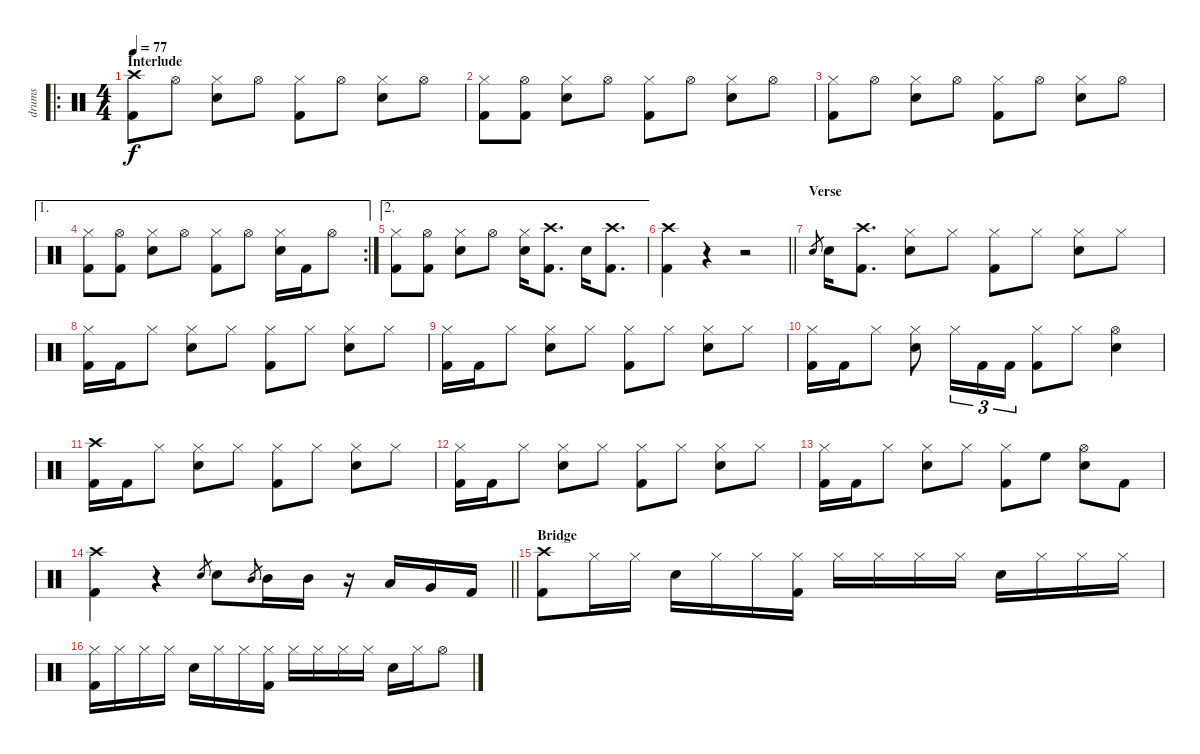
\track ("drums" "drums") {instrument percussion}
\staff {score}
\articulation defaults
\ro
\ts (4 4)
\section ("" "Interlude")
\tempo 77
\clef neutral
\ks c
("Crash high (hit)" "Kick (hit) 2").8{dy f} "Hi-Hat (open)".8 ("Hi-Hat (closed)" "Electric Snare (hit)").8 "Hi-Hat (open)".8 ("Hi-Hat (closed)" "Kick (hit) 2").8 "Hi-Hat (open)".8 ("Hi-Hat (closed)" "Electric Snare (hit)").8 "Hi-Hat (open)".8 |
("Hi-Hat (closed)" "Kick (hit) 2").8 ("Hi-Hat (open)" "Kick (hit) 2").8 ("Hi-Hat (closed)" "Electric Snare (hit)").8 "Hi-Hat (open)".8 ("Hi-Hat (closed)" "Kick (hit) 2").8 "Hi-Hat (open)".8 ("Hi-Hat (closed)" "Electric Snare (hit)").8 "Hi-Hat (open)".8 |
("Hi-Hat (closed)" "Kick (hit) 2").8 "Hi-Hat (open)".8 ("Hi-Hat (closed)" "Electric Snare (hit)").8 "Hi-Hat (open)".8 ("Hi-Hat (closed)" "Kick (hit) 2").8 "Hi-Hat (open)".8 ("Hi-Hat (closed)" "Electric Snare (hit)").8 "Hi-Hat (open)".8 |
\ae 1
\rc 2
("Hi-Hat (closed)" "Kick (hit) 2").8 ("Hi-Hat (open)" "Kick (hit) 2").8 ("Hi-Hat (closed)" "Electric Snare (hit)").8 "Hi-Hat (open)".8 ("Hi-Hat (closed)" "Kick (hit) 2").8 "Hi-Hat (open)".8 ("Hi-Hat (closed)" "Electric Snare (hit)").16 "Kick (hit) 2".16 "Hi-Hat (open)".8 |
\ae 2
("Hi-Hat (closed)" "Kick (hit) 2").8 ("Hi-Hat (open)" "Kick (hit) 2").8 ("Hi-Hat (closed)" "Electric Snare (hit)").8 "Hi-Hat (open)".8 ("Hi-Hat (closed)" "Electric Snare (hit)").16 ("Crash high (hit)" "Kick (hit) 2").8{d} "Electric Snare (hit)".16 ("Crash high (hit)" "Kick (hit) 2").8{d} |
\barLineRight lightlight
("Crash high (hit)" "Kick (hit) 2").4 r.4 r.2 |
\section ("" "Verse")
"Electric Snare (hit)".8{gr} "Electric Snare (hit)".16 ("Crash high (hit)" "Kick (hit) 2").8{d} ("Hi-Hat (closed)" "Electric Snare (hit)").8 "Hi-Hat (closed)".8 ("Hi-Hat (closed)" "Kick (hit) 2").8 "Hi-Hat (closed)".8 ("Hi-Hat (closed)" "Electric Snare (hit)").8 "Hi-Hat (closed)".8 |
("Hi-Hat (closed)" "Kick (hit) 2").16 "Kick (hit) 2".16 "Hi-Hat (closed)".8 ("Hi-Hat (closed)" "Electric Snare (hit)").8 "Hi-Hat (closed)".8 ("Hi-Hat (closed)" "Kick (hit) 2").8 "Hi-Hat (closed)".8 ("Hi-Hat (closed)" "Electric Snare (hit)").8 "Hi-Hat (closed)".8 |
("Hi-Hat (closed)" "Kick (hit) 2").16 "Kick (hit) 2".16 "Hi-Hat (closed)".8 ("Hi-Hat (closed)" "Electric Snare (hit)").8 "Hi-Hat (closed)".8 ("Hi-Hat (closed)" "Kick (hit) 2").8 "Hi-Hat (closed)".8 ("Hi-Hat (closed)" "Electric Snare (hit)").8 "Hi-Hat (closed)".8 |
("Hi-Hat (closed)" "Kick (hit) 2").16 "Kick (hit) 2".16 "Hi-Hat (closed)".8 ("Hi-Hat (closed)" "Electric Snare (hit)").8 "Hi-Hat (closed)".16{tu (3 2)} "Kick (hit) 2".16{tu (3 2)} "Kick (hit) 2".16{tu (3 2)} ("Hi-Hat (closed)" "Kick (hit) 2").8 "Hi-Hat (closed)".8 ("Hi-Hat (open)" "Electric Snare (hit)").4 |
("Crash high (hit)" "Kick (hit) 2").16 "Kick (hit) 2".16 "Hi-Hat (closed)".8 ("Hi-Hat (closed)" "Electric Snare (hit)").8 "Hi-Hat (closed)".8 ("Hi-Hat (closed)" "Kick (hit) 2").8 "Hi-Hat (closed)".8 ("Hi-Hat (closed)" "Electric Snare (hit)").8 "Hi-Hat (closed)".8 |
("Hi-Hat (closed)" "Kick (hit) 2").16 "Kick (hit) 2".16 "Hi-Hat (closed)".8 ("Hi-Hat (closed)" "Electric Snare (hit)").8 "Hi-Hat (closed)".8 ("Hi-Hat (closed)" "Kick (hit) 2").8 "Hi-Hat (closed)".8 ("Hi-Hat (closed)" "Electric Snare (hit)").8 "Hi-Hat (closed)".8 |
("Hi-Hat (closed)" "Kick (hit) 2").16 "Kick (hit) 2".16 "Hi-Hat (closed)".8 ("Hi-Hat (closed)" "Electric Snare (hit)").8 "Hi-Hat (closed)".8 ("Hi-Hat (closed)" "Kick (hit) 2").8 "High Floor Tom (hit)".8 ("Hi-Hat (open)" "Electric Snare (hit)").8 "Kick (hit) 2".8 |
\barLineRight lightlight
("Crash high (hit)" "Kick (hit) 2").4 r.4 "Electric Snare (hit)"{sl}.8{gr} "Electric Snare (hit)".8 "Mid Tom (hit)".8{gr} "Mid Tom (hit)".16 "Mid Tom (hit)".16 r.16 "Low Tom (hit)".16 "Very Low Tom (hit)".16 "Kick (hit) 2".16 |
\section ("" "Bridge")
("Crash high (hit)" "Kick (hit) 2").8 "Hi-Hat (closed)".16 "Hi-Hat (closed)".16 "Electric Snare (hit)".16 "Hi-Hat (closed)".16 "Hi-Hat (closed)".16 ("Hi-Hat (closed)" "Kick (hit) 2").16 "Hi-Hat (closed)".16 "Hi-Hat (closed)".16 "Hi-Hat (closed)".16 "Hi-Hat (closed)".16 "Electric Snare (hit)".16 "Hi-Hat (closed)".16 "Hi-Hat (closed)".16 "Hi-Hat (closed)".16 |
("Hi-Hat (closed)" "Kick (hit) 2").16 "Hi-Hat (closed)".16 "Hi-Hat (closed)".16 "Hi-Hat (closed)".16 "Electric Snare (hit)".16 "Hi-Hat (closed)".16 "Hi-Hat (closed)".16 ("Hi-Hat (closed)" "Kick (hit) 2").16 "Hi-Hat (closed)".16 "Hi-Hat (closed)".16 "Hi-Hat (closed)".16 "Hi-Hat (closed)".16 "Electric Snare (hit)".16 "Hi-Hat (closed)".16 "Hi-Hat (open)".8
